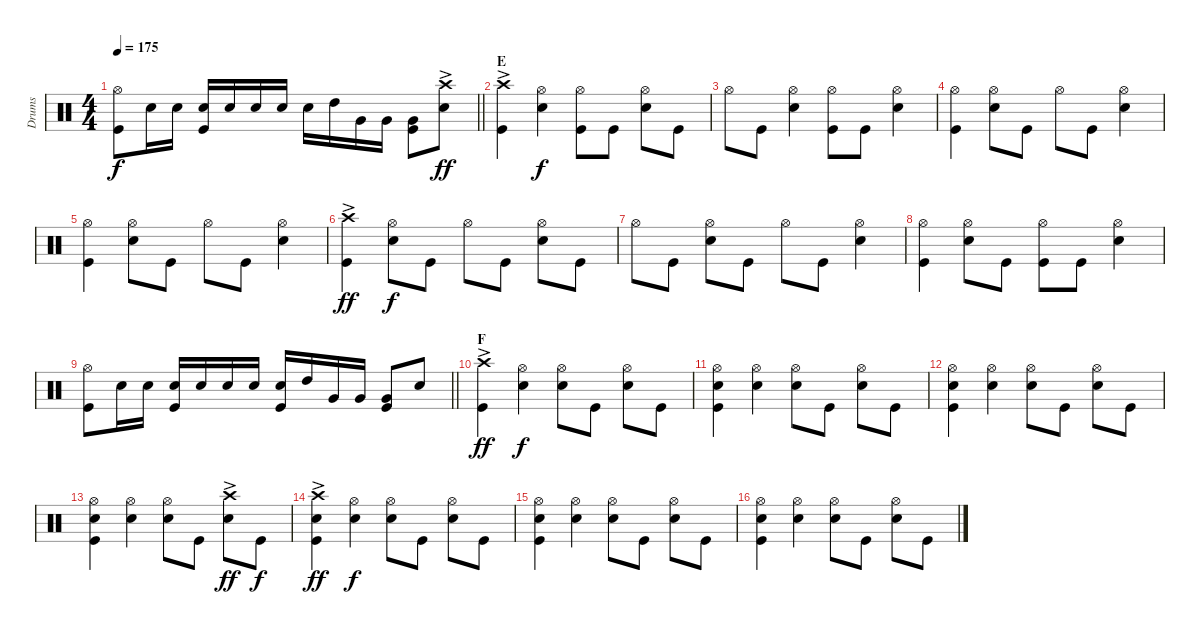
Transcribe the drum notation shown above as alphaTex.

\track ("Drums" "Drums") {instrument percussion}
\staff {score}
\articulation defaults
\ts (4 4)
\tempo 175
\clef neutral
\barLineRight lightlight
\ks c
("Hi-Hat (open)" "Kick (hit)").8{dy f} "Snare (hit) 2".16 "Snare (hit) 2".16 ("Snare (hit) 2" "Kick (hit)").16 "Snare (hit) 2".16 "Snare (hit) 2".16 "Snare (hit) 2".16 "Snare (hit) 2".16 "High Tom (hit)".16 "Very Low Tom (hit)".16 "Very Low Tom (hit)".16 ("Very Low Tom (hit)" "Kick (hit)").8 ("Snare (hit) 2" "Crash high (hit)"{ac}).8{dy ff} |
\section ("" "E")
("Crash high (hit)"{ac} "Kick (hit)").4 ("Hi-Hat (open)" "Snare (hit) 2").4{dy f} ("Hi-Hat (open)" "Kick (hit)").8 "Kick (hit)".8 ("Snare (hit) 2" "Hi-Hat (open)").8 "Kick (hit)".8 |
"Hi-Hat (open)".8 "Kick (hit)".8 ("Snare (hit) 2" "Hi-Hat (open)").4 ("Kick (hit)" "Hi-Hat (open)").8 "Kick (hit)".8 ("Snare (hit) 2" "Hi-Hat (open)").4 |
("Kick (hit)" "Hi-Hat (open)").4 ("Hi-Hat (open)" "Snare (hit) 2").8 "Kick (hit)".8 "Hi-Hat (open)".8 "Kick (hit)".8 ("Hi-Hat (open)" "Snare (hit) 2").4 |
("Kick (hit)" "Hi-Hat (open)").4 ("Hi-Hat (open)" "Snare (hit) 2").8 "Kick (hit)".8 "Hi-Hat (open)".8 "Kick (hit)".8 ("Hi-Hat (open)" "Snare (hit) 2").4 |
("Crash high (hit)"{ac} "Kick (hit)").4{dy ff} ("Hi-Hat (open)" "Snare (hit) 2").8{dy f} "Kick (hit)".8 "Hi-Hat (open)".8 "Kick (hit)".8 ("Hi-Hat (open)" "Snare (hit) 2").8 "Kick (hit)".8 |
"Hi-Hat (open)".8 "Kick (hit)".8 ("Hi-Hat (open)" "Snare (hit) 2").8 "Kick (hit)".8 "Hi-Hat (open)".8 "Kick (hit)".8 ("Hi-Hat (open)" "Snare (hit) 2").4 |
("Hi-Hat (open)" "Kick (hit)").4 ("Hi-Hat (open)" "Snare (hit) 2").8 "Kick (hit)".8 ("Kick (hit)" "Hi-Hat (open)").8 "Kick (hit)".8 ("Hi-Hat (open)" "Snare (hit) 2").4 |
\barLineRight lightlight
("Hi-Hat (open)" "Kick (hit)").8 "Snare (hit) 2".16 "Snare (hit) 2".16 ("Kick (hit)" "Snare (hit) 2").16 "Snare (hit) 2".16 "Snare (hit) 2".16 "Snare (hit) 2".16 ("Snare (hit) 2" "Kick (hit)").16 "High Tom (hit)".16 "Very Low Tom (hit)".16 "Very Low Tom (hit)".16 ("Very Low Tom (hit)" "Kick (hit)").8 "Snare (hit) 2".8 |
\section ("" "F")
("Crash high (hit)"{ac} "Kick (hit)").4{dy ff} ("Hi-Hat (open)" "Snare (hit) 2").4{dy f} ("Hi-Hat (open)" "Snare (hit) 2").8 "Kick (hit)".8 ("Hi-Hat (open)" "Snare (hit) 2").8 "Kick (hit)".8 |
("Hi-Hat (open)" "Kick (hit)" "Snare (hit) 2").4 ("Hi-Hat (open)" "Snare (hit) 2").4 ("Hi-Hat (open)" "Snare (hit) 2").8 "Kick (hit)".8 ("Hi-Hat (open)" "Snare (hit) 2").8 "Kick (hit)".8 |
("Hi-Hat (open)" "Kick (hit)" "Snare (hit) 2").4 ("Hi-Hat (open)" "Snare (hit) 2").4 ("Hi-Hat (open)" "Snare (hit) 2").8 "Kick (hit)".8 ("Hi-Hat (open)" "Snare (hit) 2").8 "Kick (hit)".8 |
("Hi-Hat (open)" "Kick (hit)" "Snare (hit) 2").4 ("Hi-Hat (open)" "Snare (hit) 2").4 ("Hi-Hat (open)" "Snare (hit) 2").8 "Kick (hit)".8 ("Crash high (hit)"{ac} "Snare (hit) 2").8{dy ff} "Kick (hit)".8{dy f} |
("Crash high (hit)"{ac} "Kick (hit)" "Snare (hit) 2").4{dy ff} ("Hi-Hat (open)" "Snare (hit) 2").4{dy f} ("Hi-Hat (open)" "Snare (hit) 2").8 "Kick (hit)".8 ("Hi-Hat (open)" "Snare (hit) 2").8 "Kick (hit)".8 |
("Hi-Hat (open)" "Kick (hit)" "Snare (hit) 2").4 ("Hi-Hat (open)" "Snare (hit) 2").4 ("Hi-Hat (open)" "Snare (hit) 2").8 "Kick (hit)".8 ("Hi-Hat (open)" "Snare (hit) 2").8 "Kick (hit)".8 |
("Hi-Hat (open)" "Kick (hit)" "Snare (hit) 2").4 ("Hi-Hat (open)" "Snare (hit) 2").4 ("Hi-Hat (open)" "Snare (hit) 2").8 "Kick (hit)".8 ("Hi-Hat (open)" "Snare (hit) 2").8 "Kick (hit)".8
